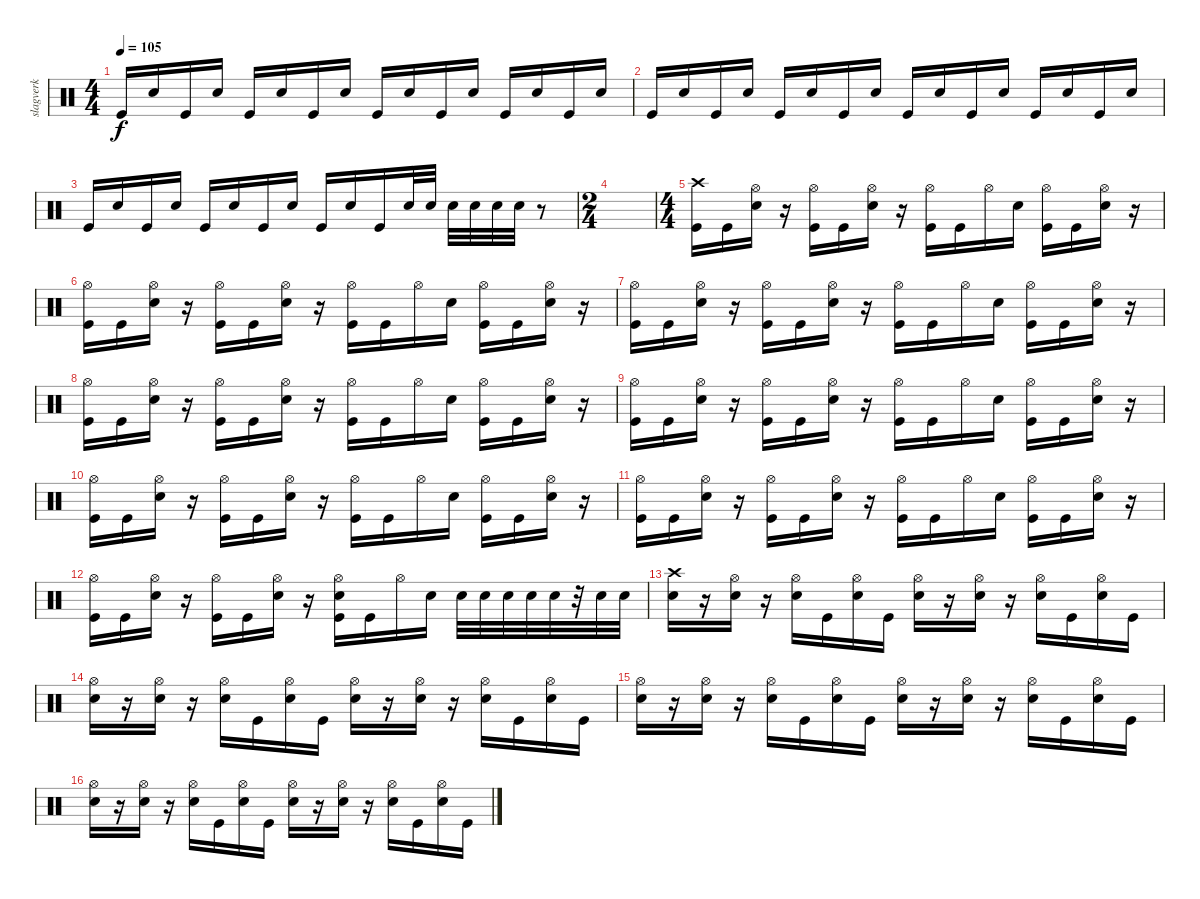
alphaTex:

\track ("slagverk" "slagverk") {instrument percussion}
\staff {score}
\articulation defaults
\ts (4 4)
\tempo 105
\clef neutral
\ks c "Kick (hit)".16{dy f} "Snare (hit) 2".16 "Kick (hit)".16 "Snare (hit) 2".16 "Kick (hit)".16 "Snare (hit) 2".16 "Kick (hit)".16 "Snare (hit) 2".16 "Kick (hit)".16 "Snare (hit) 2".16 "Kick (hit)".16 "Snare (hit) 2".16 "Kick (hit)".16 "Snare (hit) 2".16 "Kick (hit)".16 "Snare (hit) 2".16
|
"Kick (hit)".16 "Snare (hit) 2".16 "Kick (hit)".16 "Snare (hit) 2".16 "Kick (hit)".16 "Snare (hit) 2".16 "Kick (hit)".16 "Snare (hit) 2".16 "Kick (hit)".16 "Snare (hit) 2".16 "Kick (hit)".16 "Snare (hit) 2".16 "Kick (hit)".16 "Snare (hit) 2".16 "Kick (hit)".16 "Snare (hit) 2".16 |
"Kick (hit)".16 "Snare (hit) 2".16 "Kick (hit)".16 "Snare (hit) 2".16 "Kick (hit)".16 "Snare (hit) 2".16 "Kick (hit)".16 "Snare (hit) 2".16 "Kick (hit)".16 "Snare (hit) 2".16 "Kick (hit)".16 "Snare (hit) 2".32 "Snare (hit) 2".32 "Snare (hit) 2".32 "Snare (hit) 2".32 "Snare (hit) 2".32 "Snare (hit) 2".32 r.8 |
\ts (2 4)
|
\ts (4 4)
("Crash high (hit)" "Kick (hit)").16 "Kick (hit)".16 ("Hi-Hat (open)" "Snare (hit) 2").16 r.16 ("Hi-Hat (open)" "Kick (hit)").16 "Kick (hit)".16 ("Hi-Hat (open)" "Snare (hit) 2").16 r.16 ("Hi-Hat (open)" "Kick (hit)").16 "Kick (hit)".16 "Hi-Hat (open)".16 "Snare (hit) 2".16 ("Hi-Hat (open)" "Kick (hit)").16 "Kick (hit)".16 ("Hi-Hat (open)" "Snare (hit) 2").16 r.16 |
("Hi-Hat (open)" "Kick (hit)").16 "Kick (hit)".16 ("Hi-Hat (open)" "Snare (hit) 2").16 r.16 ("Hi-Hat (open)" "Kick (hit)").16 "Kick (hit)".16 ("Hi-Hat (open)" "Snare (hit) 2").16 r.16 ("Hi-Hat (open)" "Kick (hit)").16 "Kick (hit)".16 "Hi-Hat (open)".16 "Snare (hit) 2".16 ("Hi-Hat (open)" "Kick (hit)").16 "Kick (hit)".16 ("Hi-Hat (open)" "Snare (hit) 2").16 r.16 |
("Hi-Hat (open)" "Kick (hit)").16 "Kick (hit)".16 ("Hi-Hat (open)" "Snare (hit) 2").16 r.16 ("Hi-Hat (open)" "Kick (hit)").16 "Kick (hit)".16 ("Hi-Hat (open)" "Snare (hit) 2").16 r.16 ("Hi-Hat (open)" "Kick (hit)").16 "Kick (hit)".16 "Hi-Hat (open)".16 "Snare (hit) 2".16 ("Hi-Hat (open)" "Kick (hit)").16 "Kick (hit)".16 ("Hi-Hat (open)" "Snare (hit) 2").16 r.16 |
("Hi-Hat (open)" "Kick (hit)").16 "Kick (hit)".16 ("Hi-Hat (open)" "Snare (hit) 2").16 r.16 ("Hi-Hat (open)" "Kick (hit)").16 "Kick (hit)".16 ("Hi-Hat (open)" "Snare (hit) 2").16 r.16 ("Hi-Hat (open)" "Kick (hit)").16 "Kick (hit)".16 "Hi-Hat (open)".16 "Snare (hit) 2".16 ("Hi-Hat (open)" "Kick (hit)").16 "Kick (hit)".16 ("Hi-Hat (open)" "Snare (hit) 2").16 r.16 |
("Hi-Hat (open)" "Kick (hit)").16 "Kick (hit)".16 ("Hi-Hat (open)" "Snare (hit) 2").16 r.16 ("Hi-Hat (open)" "Kick (hit)").16 "Kick (hit)".16 ("Hi-Hat (open)" "Snare (hit) 2").16 r.16 ("Hi-Hat (open)" "Kick (hit)").16 "Kick (hit)".16 "Hi-Hat (open)".16 "Snare (hit) 2".16 ("Hi-Hat (open)" "Kick (hit)").16 "Kick (hit)".16 ("Hi-Hat (open)" "Snare (hit) 2").16 r.16 |
("Hi-Hat (open)" "Kick (hit)").16 "Kick (hit)".16 ("Hi-Hat (open)" "Snare (hit) 2").16 r.16 ("Hi-Hat (open)" "Kick (hit)").16 "Kick (hit)".16 ("Hi-Hat (open)" "Snare (hit) 2").16 r.16 ("Hi-Hat (open)" "Kick (hit)").16 "Kick (hit)".16 "Hi-Hat (open)".16 "Snare (hit) 2".16 ("Hi-Hat (open)" "Kick (hit)").16 "Kick (hit)".16 ("Hi-Hat (open)" "Snare (hit) 2").16 r.16 |
("Hi-Hat (open)" "Kick (hit)").16 "Kick (hit)".16 ("Hi-Hat (open)" "Snare (hit) 2").16 r.16 ("Hi-Hat (open)" "Kick (hit)").16 "Kick (hit)".16 ("Hi-Hat (open)" "Snare (hit) 2").16 r.16 ("Hi-Hat (open)" "Kick (hit)").16 "Kick (hit)".16 "Hi-Hat (open)".16 "Snare (hit) 2".16 ("Hi-Hat (open)" "Kick (hit)").16 "Kick (hit)".16 ("Hi-Hat (open)" "Snare (hit) 2").16 r.16 |
("Hi-Hat (open)" "Kick (hit)").16 "Kick (hit)".16 ("Hi-Hat (open)" "Snare (hit) 2").16 r.16 ("Hi-Hat (open)" "Kick (hit)").16 "Kick (hit)".16 ("Hi-Hat (open)" "Snare (hit) 2").16 r.16 ("Hi-Hat (open)" "Snare (hit) 2" "Kick (hit)").16 "Kick (hit)".16 "Hi-Hat (open)".16 "Snare (hit) 2".16 "Snare (hit) 2".32 "Snare (hit) 2".32 "Snare (hit) 2".32 "Snare (hit) 2".32 "Snare (hit) 2".32 r.32 "Snare (hit) 2".32 "Snare (hit) 2".32 |
("Crash high (hit)" "Snare (hit) 2").16 r.16 ("Hi-Hat (open)" "Snare (hit) 2").16 r.16 ("Hi-Hat (open)" "Snare (hit) 2").16 "Kick (hit)".16 ("Hi-Hat (open)" "Snare (hit) 2").16 "Kick (hit)".16 ("Hi-Hat (open)" "Snare (hit) 2").16 r.16 ("Hi-Hat (open)" "Snare (hit) 2").16 r.16 ("Hi-Hat (open)" "Snare (hit) 2").16 "Kick (hit)".16 ("Hi-Hat (open)" "Snare (hit) 2").16 "Kick (hit)".16 |
("Hi-Hat (open)" "Snare (hit) 2").16 r.16 ("Hi-Hat (open)" "Snare (hit) 2").16 r.16 ("Hi-Hat (open)" "Snare (hit) 2").16 "Kick (hit)".16 ("Hi-Hat (open)" "Snare (hit) 2").16 "Kick (hit)".16 ("Hi-Hat (open)" "Snare (hit) 2").16 r.16 ("Hi-Hat (open)" "Snare (hit) 2").16 r.16 ("Hi-Hat (open)" "Snare (hit) 2").16 "Kick (hit)".16 ("Hi-Hat (open)" "Snare (hit) 2").16 "Kick (hit)".16 |
("Hi-Hat (open)" "Snare (hit) 2").16 r.16 ("Hi-Hat (open)" "Snare (hit) 2").16 r.16 ("Hi-Hat (open)" "Snare (hit) 2").16 "Kick (hit)".16 ("Hi-Hat (open)" "Snare (hit) 2").16 "Kick (hit)".16 ("Hi-Hat (open)" "Snare (hit) 2").16 r.16 ("Hi-Hat (open)" "Snare (hit) 2").16 r.16 ("Hi-Hat (open)" "Snare (hit) 2").16 "Kick (hit)".16 ("Hi-Hat (open)" "Snare (hit) 2").16 "Kick (hit)".16 |
("Hi-Hat (open)" "Snare (hit) 2").16 r.16 ("Hi-Hat (open)" "Snare (hit) 2").16 r.16 ("Hi-Hat (open)" "Snare (hit) 2").16 "Kick (hit)".16 ("Hi-Hat (open)" "Snare (hit) 2").16 "Kick (hit)".16 ("Hi-Hat (open)" "Snare (hit) 2").16 r.16 ("Hi-Hat (open)" "Snare (hit) 2").16 r.16 ("Hi-Hat (open)" "Snare (hit) 2").16 "Kick (hit)".16 ("Hi-Hat (open)" "Snare (hit) 2").16 "Kick (hit)".16
